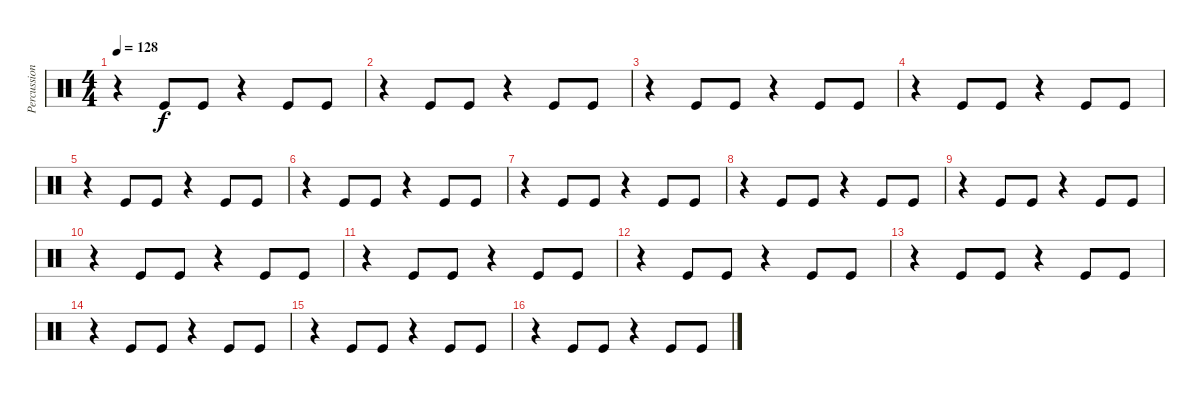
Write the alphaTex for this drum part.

\track ("Percussions" "Percussion") {instrument percussion}
\staff {score}
\articulation defaults
\ts (4 4)
\tempo 128
\clef neutral
\ks c
r.4{dy f} "Kick (hit)".8 "Kick (hit)".8 r.4 "Kick (hit)".8 "Kick (hit)".8 |
r.4 "Kick (hit)".8 "Kick (hit)".8 r.4 "Kick (hit)".8 "Kick (hit)".8 |
r.4 "Kick (hit)".8 "Kick (hit)".8 r.4 "Kick (hit)".8 "Kick (hit)".8 |
r.4 "Kick (hit)".8 "Kick (hit)".8 r.4 "Kick (hit)".8 "Kick (hit)".8 |
r.4 "Kick (hit)".8 "Kick (hit)".8 r.4 "Kick (hit)".8 "Kick (hit)".8 |
r.4 "Kick (hit)".8 "Kick (hit)".8 r.4 "Kick (hit)".8 "Kick (hit)".8 |
r.4 "Kick (hit)".8 "Kick (hit)".8 r.4 "Kick (hit)".8 "Kick (hit)".8 |
r.4 "Kick (hit)".8 "Kick (hit)".8 r.4 "Kick (hit)".8 "Kick (hit)".8 |
r.4 "Kick (hit)".8 "Kick (hit)".8 r.4 "Kick (hit)".8 "Kick (hit)".8 |
r.4 "Kick (hit)".8 "Kick (hit)".8 r.4 "Kick (hit)".8 "Kick (hit)".8 |
r.4 "Kick (hit)".8 "Kick (hit)".8 r.4 "Kick (hit)".8 "Kick (hit)".8 |
r.4 "Kick (hit)".8 "Kick (hit)".8 r.4 "Kick (hit)".8 "Kick (hit)".8 |
r.4 "Kick (hit)".8 "Kick (hit)".8 r.4 "Kick (hit)".8 "Kick (hit)".8 |
r.4 "Kick (hit)".8 "Kick (hit)".8 r.4 "Kick (hit)".8 "Kick (hit)".8 |
r.4 "Kick (hit)".8 "Kick (hit)".8 r.4 "Kick (hit)".8 "Kick (hit)".8 |
r.4 "Kick (hit)".8 "Kick (hit)".8 r.4 "Kick (hit)".8 "Kick (hit)".8
